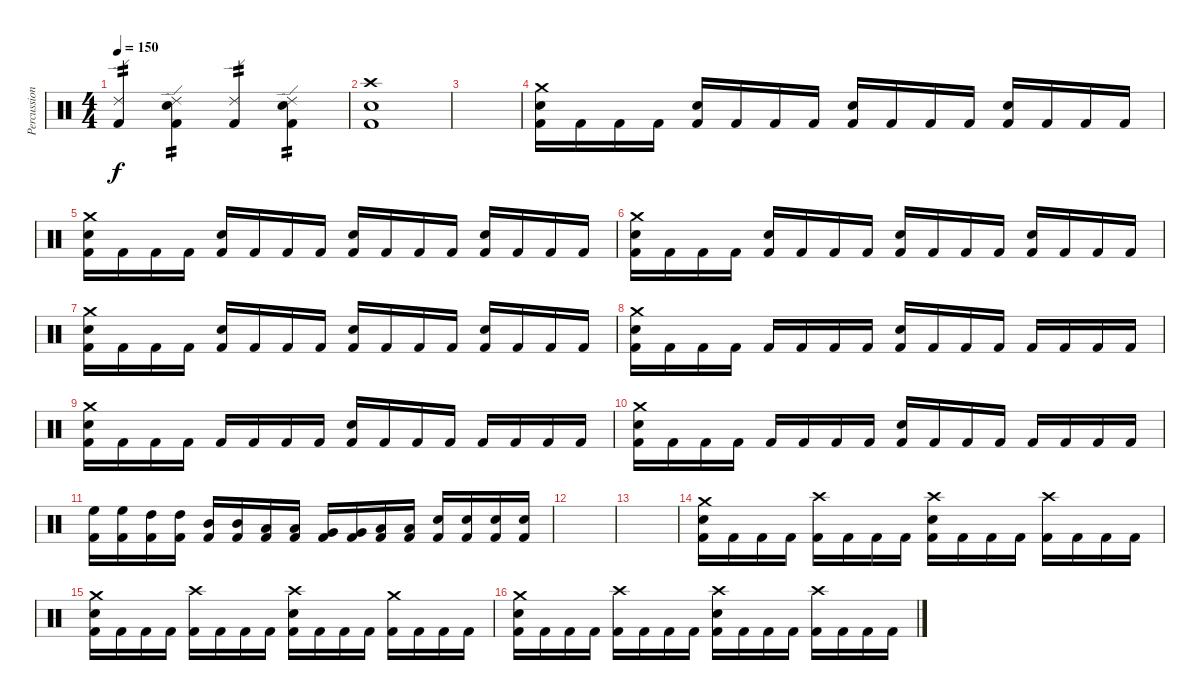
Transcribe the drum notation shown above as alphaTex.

\track ("Percussion" "Percussion") {instrument percussion}
\staff {score}
\articulation defaults
\ts (4 4)
\tempo 150
\clef neutral
\ks c
("Ride (edge) 2" "Kick (hit) 2").4{tp 2 dy f} ("Ride (edge) 2" "Snare (hit) 2" "Kick (hit) 2").4{tp 2} ("Ride (edge) 2" "Kick (hit) 2").4{tp 2} ("Ride (edge) 2" "Snare (hit) 2" "Kick (hit) 2").4{tp 2} |
("Crash high (hit)" "Snare (hit) 2" "Kick (hit) 2").1 |
|
("Crash medium (hit)" "Snare (hit) 2" "Kick (hit) 2").16 "Kick (hit) 2".16 "Kick (hit) 2".16 "Kick (hit) 2".16 ("Snare (hit) 2" "Kick (hit) 2").16 "Kick (hit) 2".16 "Kick (hit) 2".16 "Kick (hit) 2".16 ("Snare (hit) 2" "Kick (hit) 2").16 "Kick (hit) 2".16 "Kick (hit) 2".16 "Kick (hit) 2".16 ("Snare (hit) 2" "Kick (hit) 2").16 "Kick (hit) 2".16 "Kick (hit) 2".16 "Kick (hit) 2".16 |
("Crash medium (hit)" "Snare (hit) 2" "Kick (hit) 2").16 "Kick (hit) 2".16 "Kick (hit) 2".16 "Kick (hit) 2".16 ("Snare (hit) 2" "Kick (hit) 2").16 "Kick (hit) 2".16 "Kick (hit) 2".16 "Kick (hit) 2".16 ("Snare (hit) 2" "Kick (hit) 2").16 "Kick (hit) 2".16 "Kick (hit) 2".16 "Kick (hit) 2".16 ("Snare (hit) 2" "Kick (hit) 2").16 "Kick (hit) 2".16 "Kick (hit) 2".16 "Kick (hit) 2".16 |
("Crash medium (hit)" "Snare (hit) 2" "Kick (hit) 2").16 "Kick (hit) 2".16 "Kick (hit) 2".16 "Kick (hit) 2".16 ("Snare (hit) 2" "Kick (hit) 2").16 "Kick (hit) 2".16 "Kick (hit) 2".16 "Kick (hit) 2".16 ("Snare (hit) 2" "Kick (hit) 2").16 "Kick (hit) 2".16 "Kick (hit) 2".16 "Kick (hit) 2".16 ("Snare (hit) 2" "Kick (hit) 2").16 "Kick (hit) 2".16 "Kick (hit) 2".16 "Kick (hit) 2".16 |
("Crash medium (hit)" "Snare (hit) 2" "Kick (hit) 2").16 "Kick (hit) 2".16 "Kick (hit) 2".16 "Kick (hit) 2".16 ("Snare (hit) 2" "Kick (hit) 2").16 "Kick (hit) 2".16 "Kick (hit) 2".16 "Kick (hit) 2".16 ("Snare (hit) 2" "Kick (hit) 2").16 "Kick (hit) 2".16 "Kick (hit) 2".16 "Kick (hit) 2".16 ("Snare (hit) 2" "Kick (hit) 2").16 "Kick (hit) 2".16 "Kick (hit) 2".16 "Kick (hit) 2".16 |
("Crash medium (hit)" "Snare (hit) 2" "Kick (hit) 2").16 "Kick (hit) 2".16 "Kick (hit) 2".16 "Kick (hit) 2".16 "Kick (hit) 2".16 "Kick (hit) 2".16 "Kick (hit) 2".16 "Kick (hit) 2".16 ("Snare (hit) 2" "Kick (hit) 2").16 "Kick (hit) 2".16 "Kick (hit) 2".16 "Kick (hit) 2".16 "Kick (hit) 2".16 "Kick (hit) 2".16 "Kick (hit) 2".16 "Kick (hit) 2".16 |
("Crash medium (hit)" "Snare (hit) 2" "Kick (hit) 2").16 "Kick (hit) 2".16 "Kick (hit) 2".16 "Kick (hit) 2".16 "Kick (hit) 2".16 "Kick (hit) 2".16 "Kick (hit) 2".16 "Kick (hit) 2".16 ("Snare (hit) 2" "Kick (hit) 2").16 "Kick (hit) 2".16 "Kick (hit) 2".16 "Kick (hit) 2".16 "Kick (hit) 2".16 "Kick (hit) 2".16 "Kick (hit) 2".16 "Kick (hit) 2".16 |
("Crash medium (hit)" "Snare (hit) 2" "Kick (hit) 2").16 "Kick (hit) 2".16 "Kick (hit) 2".16 "Kick (hit) 2".16 "Kick (hit) 2".16 "Kick (hit) 2".16 "Kick (hit) 2".16 "Kick (hit) 2".16 ("Snare (hit) 2" "Kick (hit) 2").16 "Kick (hit) 2".16 "Kick (hit) 2".16 "Kick (hit) 2".16 "Kick (hit) 2".16 "Kick (hit) 2".16 "Kick (hit) 2".16 "Kick (hit) 2".16 |
("High Floor Tom (hit)" "Kick (hit) 2").16 ("High Floor Tom (hit)" "Kick (hit) 2").16 ("High Tom (hit)" "Kick (hit) 2").16 ("High Tom (hit)" "Kick (hit) 2").16 ("Mid Tom (hit)" "Kick (hit) 2").16 ("Mid Tom (hit)" "Kick (hit) 2").16 ("Low Tom (hit)" "Kick (hit) 2").16 ("Low Tom (hit)" "Kick (hit) 2").16 ("Very Low Tom (hit)" "Kick (hit) 2").16 ("Very Low Tom (hit)" "Kick (hit) 2").16 ("Low Floor Tom (hit)" "Kick (hit) 2").16 ("Low Floor Tom (hit)" "Kick (hit) 2").16 ("Snare (hit) 2" "Kick (hit) 2").16 ("Snare (hit) 2" "Kick (hit) 2").16 ("Snare (hit) 2" "Kick (hit) 2").16 ("Snare (hit) 2" "Kick (hit) 2").16 |
|
|
("Crash medium (hit)" "Snare (hit) 2" "Kick (hit) 2").16 "Kick (hit) 2".16 "Kick (hit) 2".16 "Kick (hit) 2".16 ("Crash high (hit)" "Kick (hit) 2").16 "Kick (hit) 2".16 "Kick (hit) 2".16 "Kick (hit) 2".16 ("Crash high (hit)" "Snare (hit) 2" "Kick (hit) 2").16 "Kick (hit) 2".16 "Kick (hit) 2".16 "Kick (hit) 2".16 ("Crash high (hit)" "Kick (hit) 2").16 "Kick (hit) 2".16 "Kick (hit) 2".16 "Kick (hit) 2".16 |
("Crash medium (hit)" "Snare (hit) 2" "Kick (hit) 2").16 "Kick (hit) 2".16 "Kick (hit) 2".16 "Kick (hit) 2".16 ("Crash high (hit)" "Kick (hit) 2").16 "Kick (hit) 2".16 "Kick (hit) 2".16 "Kick (hit) 2".16 ("Crash high (hit)" "Snare (hit) 2" "Kick (hit) 2").16 "Kick (hit) 2".16 "Kick (hit) 2".16 "Kick (hit) 2".16 ("Crash medium (hit)" "Kick (hit) 2").16 "Kick (hit) 2".16 "Kick (hit) 2".16 "Kick (hit) 2".16 |
("Crash medium (hit)" "Snare (hit) 2" "Kick (hit) 2").16 "Kick (hit) 2".16 "Kick (hit) 2".16 "Kick (hit) 2".16 ("Crash high (hit)" "Kick (hit) 2").16 "Kick (hit) 2".16 "Kick (hit) 2".16 "Kick (hit) 2".16 ("Crash high (hit)" "Snare (hit) 2" "Kick (hit) 2").16 "Kick (hit) 2".16 "Kick (hit) 2".16 "Kick (hit) 2".16 ("Crash high (hit)" "Kick (hit) 2").16 "Kick (hit) 2".16 "Kick (hit) 2".16 "Kick (hit) 2".16
